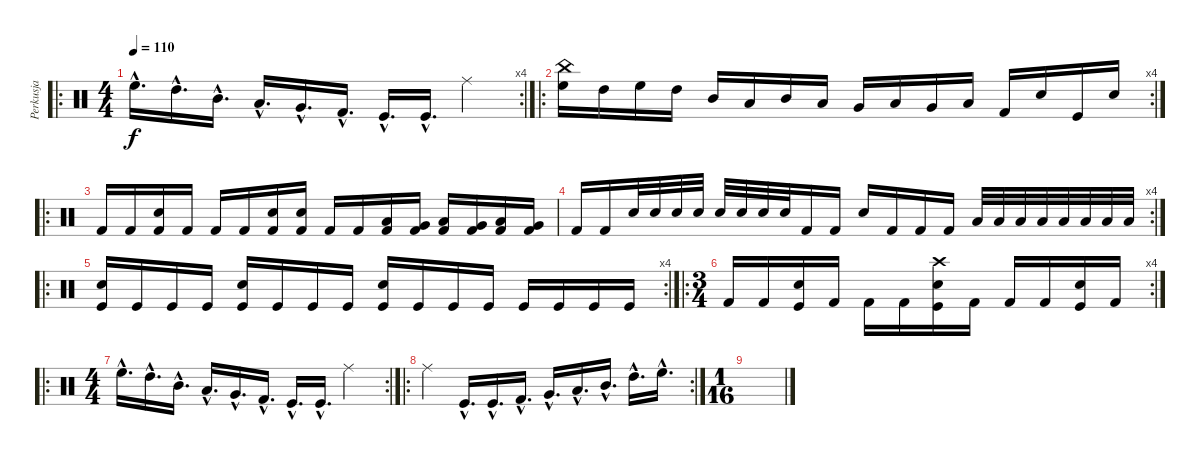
\track ("Perkusja" "Perkusja") {instrument percussion}
\staff {score}
\articulation defaults
\ro
\rc 4
\ts (4 4)
\tempo 110
\clef neutral
\ks c "High Floor Tom (hit)"{hac}.16{d dy f} "High Tom (hit)"{hac}.16{d} "Mid Tom (hit)"{hac}.16{d} "Low Tom (hit)"{hac}.16{d} "Very Low Tom (hit)"{hac}.16{d} "Kick (hit) 2"{hac}.16{d} "Kick (hit)"{hac}.16{d} "Kick (hit)"{hac}.16{d} "Ride (middle)".4
|
\ro
\rc 4
("China (hit)" "High Floor Tom (hit)").16 "High Tom (hit)".16 "High Floor Tom (hit)".16 "High Tom (hit)".16 "Mid Tom (hit)".16 "Low Tom (hit)".16 "Mid Tom (hit)".16 "Low Tom (hit)".16 "Very Low Tom (hit)".16 "Low Floor Tom (hit)".16 "Very Low Tom (hit)".16 "Low Floor Tom (hit)".16 "Kick (hit) 2".16 "Electric Snare (hit)".16 "Kick (hit)".16 "Snare (hit) 2".16 |
\ro "Kick (hit) 2".16 "Kick (hit) 2".16
("Electric Snare (hit)" "Kick (hit) 2").16 "Kick (hit) 2".16 "Kick (hit) 2".16 "Kick (hit) 2".16 ("Electric Snare (hit)" "Kick (hit) 2").16 ("Electric Snare (hit)" "Kick (hit) 2").16 "Kick (hit) 2".16 "Kick (hit) 2".16 ("Low Floor Tom (hit)" "Kick (hit) 2").16 ("Very Low Tom (hit)" "Kick (hit) 2").16 ("Low Floor Tom (hit)" "Kick (hit) 2").16 ("Very Low Tom (hit)" "Kick (hit) 2").16 ("Low Floor Tom (hit)" "Kick (hit) 2").16 ("Very Low Tom (hit)" "Kick (hit) 2").16 |
\rc 4 "Kick (hit) 2".16 "Kick (hit) 2".16 "Electric Snare (hit)".32 "Snare (hit) 2".32 "Electric Snare (hit)".32 "Snare (hit) 2".32 "Electric Snare (hit)".32 "Snare (hit) 2".32 "Electric Snare (hit)".32 "Snare (hit) 2".32 "Kick (hit) 2".16 "Kick (hit) 2".16 "Electric Snare (hit)".16 "Kick (hit) 2".16 "Kick (hit) 2".16 "Kick (hit) 2".16 "Low Floor Tom (hit)".32 "Low Floor Tom (hit)".32 "Low Floor Tom (hit)".32 "Low Floor Tom (hit)".32 "Low Floor Tom (hit)".32 "Low Floor Tom (hit)".32 "Low Floor Tom (hit)".32 "Low Floor Tom (hit)".32
|
\ro
\rc 4
("Electric Snare (hit)" "Kick (hit)").16 "Kick (hit)".16 "Kick (hit)".16 "Kick (hit)".16 ("Electric Snare (hit)" "Kick (hit)").16 "Kick (hit)".16 "Kick (hit)".16 "Kick (hit)".16 ("Electric Snare (hit)" "Kick (hit)").16 "Kick (hit)".16 "Kick (hit)".16 "Kick (hit)".16 "Kick (hit)".16 "Kick (hit)".16 "Kick (hit)".16 "Kick (hit)".16 |
\ro
\rc 4
\ts (3 4)
"Kick (hit) 2".16 "Kick (hit) 2".16 ("Kick (hit)" "Electric Snare (hit)").16 "Kick (hit) 2".16 "Kick (hit) 2".16 "Kick (hit) 2".16 ("Crash high (hit)" "Kick (hit)" "Electric Snare (hit)").16 "Kick (hit) 2".16 "Kick (hit) 2".16 "Kick (hit) 2".16 ("Kick (hit)" "Electric Snare (hit)").16 "Kick (hit) 2".16 |
\ro
\rc 2
\ts (4 4)
"High Floor Tom (hit)"{hac}.16{d} "High Tom (hit)"{hac}.16{d} "Mid Tom (hit)"{hac}.16{d} "Low Tom (hit)"{hac}.16{d} "Very Low Tom (hit)"{hac}.16{d} "Kick (hit) 2"{hac}.16{d} "Kick (hit)"{hac}.16{d} "Kick (hit)"{hac}.16{d} "Ride (middle)".4 |
\ro
\rc 2 "Ride (middle)".4 "Kick (hit)"{hac}.16{d} "Kick (hit)"{hac}.16{d} "Kick (hit) 2"{hac}.16{d} "Very Low Tom (hit)"{hac}.16{d} "Low Tom (hit)"{hac}.16{d} "Mid Tom (hit)"{hac}.16{d} "High Tom (hit)"{hac}.16{d} "High Floor Tom (hit)"{hac}.16{d}
|
\ts (1 16)
